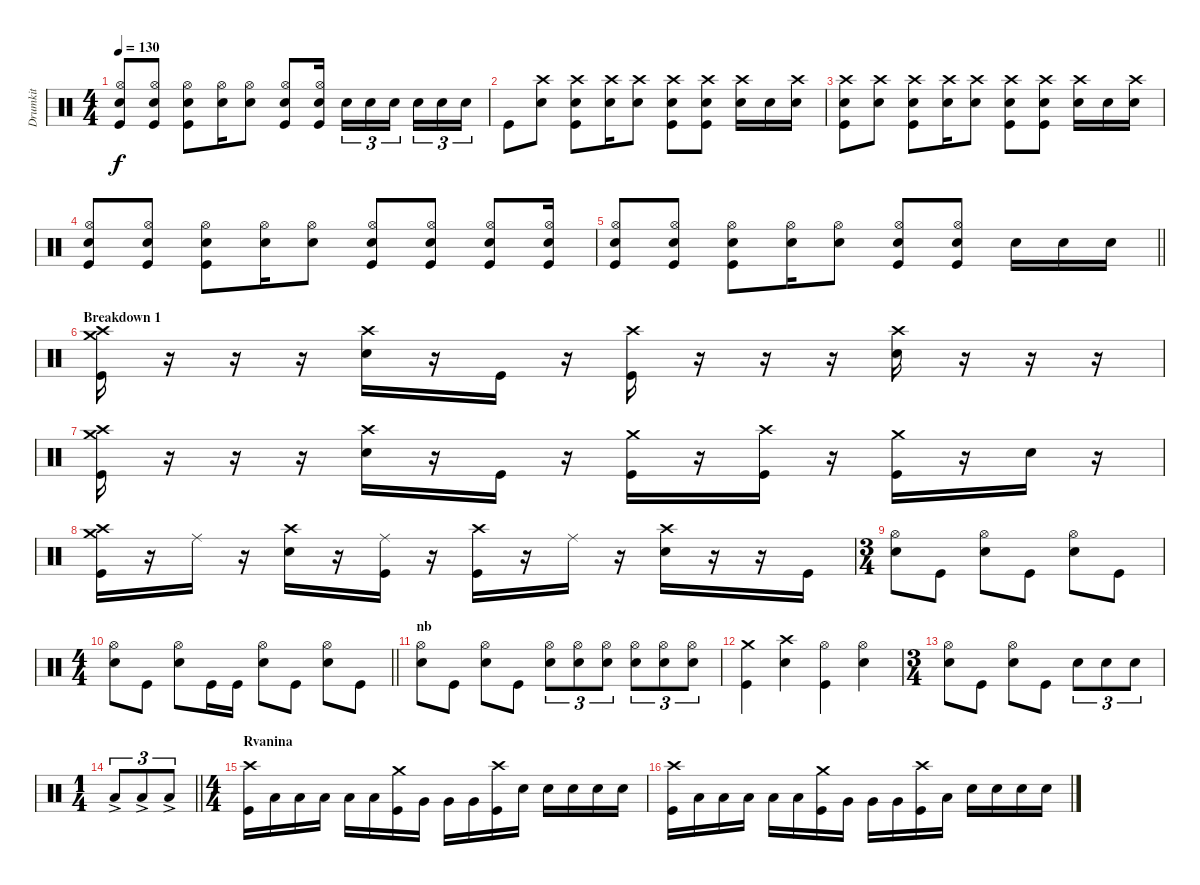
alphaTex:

\track ("Drumkit" "Drumkit") {instrument percussion}
\staff {score}
\articulation defaults
\ts (4 4)
\tempo 130
\clef neutral
\ks c
("Snare (hit) 2" "Hi-Hat (open)" "Kick (hit)").8{dy f} ("Snare (hit) 2" "Hi-Hat (open)" "Kick (hit)").8 ("Snare (hit) 2" "Hi-Hat (open)" "Kick (hit)").8 ("Snare (hit) 2" "Hi-Hat (open)").16 ("Snare (hit) 2" "Hi-Hat (open)").8 ("Snare (hit) 2" "Hi-Hat (open)" "Kick (hit)").8 ("Snare (hit) 2" "Hi-Hat (open)" "Kick (hit)").16 "Snare (hit) 2".16{tu (3 2)} "Snare (hit) 2".16{tu (3 2)} "Snare (hit) 2".16{tu (3 2) beam splitsecondary} "Snare (hit) 2".16{tu (3 2)} "Snare (hit) 2".16{tu (3 2)} "Snare (hit) 2".16{tu (3 2)} |
"Kick (hit)".8 ("Snare (hit) 2" "Crash high (hit)").8 ("Snare (hit) 2" "Crash high (hit)" "Kick (hit)").8 ("Snare (hit) 2" "Crash high (hit)").16 ("Snare (hit) 2" "Crash high (hit)").8 ("Snare (hit) 2" "Crash high (hit)" "Kick (hit)").8 ("Snare (hit) 2" "Crash high (hit)" "Kick (hit)").8 ("Snare (hit) 2" "Crash high (hit)").16 "Snare (hit) 2".16 ("Snare (hit) 2" "Crash high (hit)").16 |
("Kick (hit)" "Crash high (hit)" "Snare (hit) 2").8 ("Snare (hit) 2" "Crash high (hit)").8 ("Snare (hit) 2" "Crash high (hit)" "Kick (hit)").8 ("Snare (hit) 2" "Crash high (hit)").16 ("Snare (hit) 2" "Crash high (hit)").8 ("Snare (hit) 2" "Crash high (hit)" "Kick (hit)").8 ("Snare (hit) 2" "Crash high (hit)" "Kick (hit)").8 ("Snare (hit) 2" "Crash high (hit)").16 "Snare (hit) 2".16 ("Snare (hit) 2" "Crash high (hit)").16 |
("Snare (hit) 2" "Hi-Hat (open)" "Kick (hit)").8 ("Snare (hit) 2" "Hi-Hat (open)" "Kick (hit)").8 ("Snare (hit) 2" "Hi-Hat (open)" "Kick (hit)").8 ("Snare (hit) 2" "Hi-Hat (open)").16 ("Snare (hit) 2" "Hi-Hat (open)").8 ("Snare (hit) 2" "Hi-Hat (open)" "Kick (hit)").8 ("Snare (hit) 2" "Hi-Hat (open)" "Kick (hit)").8 ("Snare (hit) 2" "Hi-Hat (open)" "Kick (hit)").8 ("Snare (hit) 2" "Hi-Hat (open)" "Kick (hit)").16 |
\barLineRight lightlight
("Snare (hit) 2" "Hi-Hat (open)" "Kick (hit)").8 ("Snare (hit) 2" "Hi-Hat (open)" "Kick (hit)").8 ("Snare (hit) 2" "Hi-Hat (open)" "Kick (hit)").8 ("Snare (hit) 2" "Hi-Hat (open)").16 ("Snare (hit) 2" "Hi-Hat (open)").8 ("Snare (hit) 2" "Hi-Hat (open)" "Kick (hit)").8 ("Snare (hit) 2" "Hi-Hat (open)" "Kick (hit)").8 "Snare (hit) 2".16 "Snare (hit) 2".16 "Snare (hit) 2".16 |
\section ("" "Breakdown 1")
("Kick (hit)" "Crash medium (hit)" "Crash high (hit)").16 r.16 r.16 r.16 ("Crash high (hit)" "Snare (hit) 2").16 r.16 "Kick (hit)".16 r.16 ("Crash high (hit)" "Kick (hit)").16 r.16 r.16 r.16 ("Crash high (hit)" "Snare (hit) 2").16 r.16 r.16 r.16 |
("Kick (hit)" "Crash medium (hit)" "Crash high (hit)").16 r.16 r.16 r.16 ("Crash high (hit)" "Snare (hit) 2").16 r.16 "Kick (hit)".16 r.16 ("Kick (hit)" "Crash medium (hit)").16 r.16 ("Crash high (hit)" "Kick (hit)").16 r.16 ("Crash medium (hit)" "Kick (hit)").16 r.16 "Snare (hit) 2".16 r.16 |
("Kick (hit)" "Crash medium (hit)" "Crash high (hit)").16 r.16 "Ride (middle)".16 r.16 ("Crash high (hit)" "Snare (hit) 2").16 r.16 ("Kick (hit)" "Ride (middle)").16 r.16 ("Crash high (hit)" "Kick (hit)").16 r.16 "Ride (middle)".16 r.16 ("Crash high (hit)" "Snare (hit) 2").16 r.16 r.16 "Kick (hit)".16 |
\ts (3 4)
("Snare (hit) 2" "Hi-Hat (open)").8 "Kick (hit)".8 ("Snare (hit) 2" "Hi-Hat (open)").8 "Kick (hit)".8 ("Snare (hit) 2" "Hi-Hat (open)").8 "Kick (hit)".8 |
\ts (4 4)
\barLineRight lightlight
("Snare (hit) 2" "Hi-Hat (open)").8 "Kick (hit)".8 ("Snare (hit) 2" "Hi-Hat (open)").8 "Kick (hit)".16 "Kick (hit)".16 ("Snare (hit) 2" "Hi-Hat (open)").8 "Kick (hit)".8 ("Snare (hit) 2" "Hi-Hat (open)").8 "Kick (hit)".8 |
\section ("" "nb")
("Snare (hit) 2" "Hi-Hat (open)").8 "Kick (hit)".8 ("Snare (hit) 2" "Hi-Hat (open)").8 "Kick (hit)".8 ("Snare (hit) 2" "Hi-Hat (open)").8{tu (3 2)} ("Snare (hit) 2" "Hi-Hat (open)").8{tu (3 2)} ("Snare (hit) 2" "Hi-Hat (open)").8{tu (3 2)} ("Snare (hit) 2" "Hi-Hat (open)").8{tu (3 2)} ("Snare (hit) 2" "Hi-Hat (open)").8{tu (3 2)} ("Snare (hit) 2" "Hi-Hat (open)").8{tu (3 2)} |
("Crash medium (hit)" "Kick (hit)").4 ("Snare (hit) 2" "Crash high (hit)").4 ("Hi-Hat (open)" "Kick (hit)").4 ("Hi-Hat (open)" "Snare (hit) 2").4 |
\ts (3 4)
("Snare (hit) 2" "Hi-Hat (open)").8 "Kick (hit)".8 ("Snare (hit) 2" "Hi-Hat (open)").8 "Kick (hit)".8 "Snare (hit) 2".8{tu (3 2)} "Snare (hit) 2".8{tu (3 2)} "Snare (hit) 2".8{tu (3 2)} |
\ts (1 4)
\barLineRight lightlight "Low Tom (hit)"{ac}.8{tu (3 2)} "Low Tom (hit)"{ac}.8{tu (3 2)} "Low Tom (hit)"{ac}.8{tu (3 2)}
|
\ts (4 4)
\section ("" "Rvanina")
("Crash high (hit)" "Kick (hit)").16 "Low Tom (hit)".16 "Low Tom (hit)".16 "Low Tom (hit)".16 "Low Tom (hit)".16 "Low Tom (hit)".16 ("Kick (hit)" "Crash medium (hit)").16 "Very Low Tom (hit)".16 "Very Low Tom (hit)".16 "Very Low Tom (hit)".16 ("Kick (hit)" "Crash high (hit)").16 "Snare (hit) 2".16 "Snare (hit) 2".16 "Snare (hit) 2".16 "Snare (hit) 2".16 "Snare (hit) 2".16 |
("Crash high (hit)" "Kick (hit)").16 "Low Tom (hit)".16 "Low Tom (hit)".16 "Low Tom (hit)".16 "Low Tom (hit)".16 "Low Tom (hit)".16 ("Kick (hit)" "Crash medium (hit)").16 "Very Low Tom (hit)".16 "Very Low Tom (hit)".16 "Very Low Tom (hit)".16 ("Kick (hit)" "Crash high (hit)").16 "Low Tom (hit)".16 "Snare (hit) 2".16 "Snare (hit) 2".16 "Snare (hit) 2".16 "Snare (hit) 2".16
